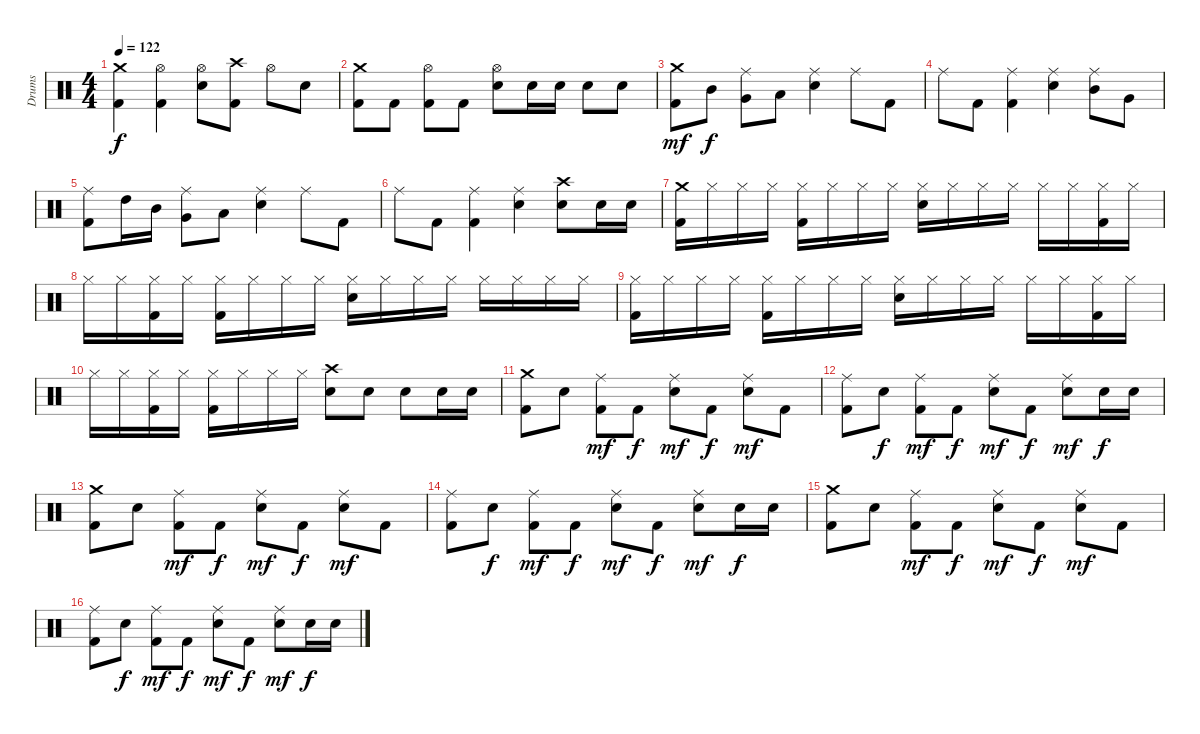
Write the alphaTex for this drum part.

\track ("Drums" "Drums") {instrument percussion}
\staff {score}
\articulation defaults
\ts (4 4)
\tempo 122
\clef neutral
\ks c
("Kick (hit) 2" "Crash medium (hit)").4{dy f} ("Kick (hit) 2" "Hi-Hat (open)").4 ("Hi-Hat (open)" "Snare (hit) 2").8 ("Kick (hit) 2" "Crash high (hit)").8 "Hi-Hat (open)".8 "Snare (hit) 2".8 |
("Kick (hit) 2" "Crash medium (hit)").8 "Kick (hit) 2".8 ("Kick (hit) 2" "Hi-Hat (open)").8 "Kick (hit) 2".8 ("Snare (hit) 2" "Hi-Hat (open)").8 "Snare (hit) 2".16 "Snare (hit) 2".16 "Snare (hit) 2".8 "Snare (hit) 2".8 |
("Kick (hit) 2" "Crash medium (hit)").8{dy mf} "Mid Tom (hit)".8{dy f} ("Very Low Tom (hit)" "Ride (middle)").8 "Low Floor Tom (hit)".8 ("Snare (hit) 2" "Ride (middle)").4 "Ride (middle)".8 "Kick (hit) 2".8 |
"Ride (middle)".8 "Kick (hit) 2".8 ("Kick (hit) 2" "Ride (middle)").4 ("Snare (hit) 2" "Ride (middle)").4 ("Ride (middle)" "Mid Tom (hit)").8 "Very Low Tom (hit)".8 |
("Kick (hit) 2" "Ride (middle)").8 "High Tom (hit)".16 "Mid Tom (hit)".16 ("Ride (middle)" "Very Low Tom (hit)").8 "Low Floor Tom (hit)".8 ("Snare (hit) 2" "Ride (middle)").4 "Ride (middle)".8 "Kick (hit) 2".8 |
"Ride (middle)".8 "Kick (hit) 2".8 ("Kick (hit) 2" "Ride (middle)").4 ("Snare (hit) 2" "Ride (middle)").4 ("Snare (hit) 2" "Crash high (hit)").8 "Snare (hit) 2".16 "Snare (hit) 2".16 |
("Kick (hit) 2" "Crash medium (hit)").16 "Hi-Hat (closed)".16 "Hi-Hat (closed)".16 "Hi-Hat (closed)".16 ("Hi-Hat (closed)" "Kick (hit) 2").16 "Hi-Hat (closed)".16 "Hi-Hat (closed)".16 "Hi-Hat (closed)".16 ("Hi-Hat (closed)" "Snare (hit) 2").16 "Hi-Hat (closed)".16 "Hi-Hat (closed)".16 "Hi-Hat (closed)".16 "Hi-Hat (closed)".16 "Hi-Hat (closed)".16 ("Hi-Hat (closed)" "Kick (hit) 2").16 "Hi-Hat (closed)".16 |
"Hi-Hat (closed)".16 "Hi-Hat (closed)".16 ("Hi-Hat (closed)" "Kick (hit) 2").16 "Hi-Hat (closed)".16 ("Kick (hit) 2" "Hi-Hat (closed)").16 "Hi-Hat (closed)".16 "Hi-Hat (closed)".16 "Hi-Hat (closed)".16 ("Snare (hit) 2" "Hi-Hat (closed)").16 "Hi-Hat (closed)".16 "Hi-Hat (closed)".16 "Hi-Hat (closed)".16 "Hi-Hat (closed)".16 "Hi-Hat (closed)".16 "Hi-Hat (closed)".16 "Hi-Hat (closed)".16 |
("Kick (hit) 2" "Hi-Hat (closed)").16 "Hi-Hat (closed)".16 "Hi-Hat (closed)".16 "Hi-Hat (closed)".16 ("Hi-Hat (closed)" "Kick (hit) 2").16 "Hi-Hat (closed)".16 "Hi-Hat (closed)".16 "Hi-Hat (closed)".16 ("Snare (hit) 2" "Hi-Hat (closed)").16 "Hi-Hat (closed)".16 "Hi-Hat (closed)".16 "Hi-Hat (closed)".16 "Hi-Hat (closed)".16 "Hi-Hat (closed)".16 ("Hi-Hat (closed)" "Kick (hit) 2").16 "Hi-Hat (closed)".16 |
"Hi-Hat (closed)".16 "Hi-Hat (closed)".16 ("Hi-Hat (closed)" "Kick (hit) 2").16 "Hi-Hat (closed)".16 ("Kick (hit) 2" "Hi-Hat (closed)").16 "Hi-Hat (closed)".16 "Hi-Hat (closed)".16 "Hi-Hat (closed)".16 ("Snare (hit) 2" "Crash high (hit)").8 "Snare (hit) 2".8 "Snare (hit) 2".8 "Snare (hit) 2".16 "Snare (hit) 2".16 |
("Crash medium (hit)" "Kick (hit) 2").8 "Snare (hit) 2".8 ("Kick (hit) 2" "Ride (middle)").8{dy mf} "Kick (hit) 2".8{dy f} ("Snare (hit) 2" "Ride (middle)").8{dy mf} "Kick (hit) 2".8{dy f} ("Snare (hit) 2" "Ride (middle)").8{dy mf} "Kick (hit) 2".8 |
("Kick (hit) 2" "Ride (middle)").8 "Snare (hit) 2".8{dy f} ("Kick (hit) 2" "Ride (middle)").8{dy mf} "Kick (hit) 2".8{dy f} ("Snare (hit) 2" "Ride (middle)").8{dy mf} "Kick (hit) 2".8{dy f} ("Snare (hit) 2" "Ride (middle)").8{dy mf} "Snare (hit) 2".16{dy f} "Snare (hit) 2".16 |
("Crash medium (hit)" "Kick (hit) 2").8 "Snare (hit) 2".8 ("Kick (hit) 2" "Ride (middle)").8{dy mf} "Kick (hit) 2".8{dy f} ("Snare (hit) 2" "Ride (middle)").8{dy mf} "Kick (hit) 2".8{dy f} ("Snare (hit) 2" "Ride (middle)").8{dy mf} "Kick (hit) 2".8 |
("Kick (hit) 2" "Ride (middle)").8 "Snare (hit) 2".8{dy f} ("Kick (hit) 2" "Ride (middle)").8{dy mf} "Kick (hit) 2".8{dy f} ("Snare (hit) 2" "Ride (middle)").8{dy mf} "Kick (hit) 2".8{dy f} ("Snare (hit) 2" "Ride (middle)").8{dy mf} "Snare (hit) 2".16{dy f} "Snare (hit) 2".16 |
("Crash medium (hit)" "Kick (hit) 2").8 "Snare (hit) 2".8 ("Kick (hit) 2" "Ride (middle)").8{dy mf} "Kick (hit) 2".8{dy f} ("Snare (hit) 2" "Ride (middle)").8{dy mf} "Kick (hit) 2".8{dy f} ("Snare (hit) 2" "Ride (middle)").8{dy mf} "Kick (hit) 2".8 |
("Kick (hit) 2" "Ride (middle)").8 "Snare (hit) 2".8{dy f} ("Kick (hit) 2" "Ride (middle)").8{dy mf} "Kick (hit) 2".8{dy f} ("Snare (hit) 2" "Ride (middle)").8{dy mf} "Kick (hit) 2".8{dy f} ("Snare (hit) 2" "Ride (middle)").8{dy mf} "Snare (hit) 2".16{dy f} "Snare (hit) 2".16
